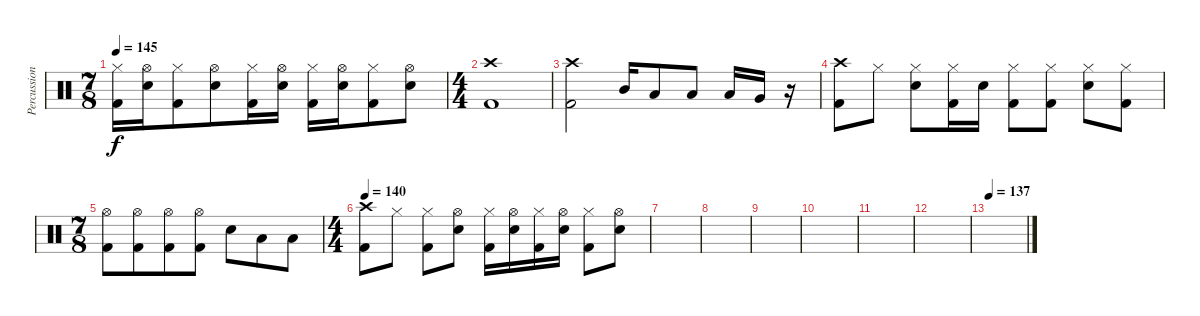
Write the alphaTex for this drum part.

\track ("Percussioni" "Percussion") {instrument percussion}
\staff {score}
\articulation defaults
\ts (7 8)
\tempo 145
\clef neutral
\ks c
("Hi-Hat (closed)" "Kick (hit) 2").16{dy f} ("Hi-Hat (open)" "Snare (hit) 2").16 ("Hi-Hat (closed)" "Kick (hit) 2").8 ("Hi-Hat (open)" "Snare (hit) 2").8 ("Hi-Hat (closed)" "Kick (hit) 2").16 ("Hi-Hat (open)" "Snare (hit) 2").16 ("Hi-Hat (closed)" "Kick (hit) 2").16 ("Hi-Hat (open)" "Snare (hit) 2").16 ("Hi-Hat (closed)" "Kick (hit) 2").8 ("Hi-Hat (open)" "Snare (hit) 2").8 |
\ts (4 4)
("Crash high (hit)" "Kick (hit) 2").1 |
("Crash high (hit)" "Kick (hit) 2").2 "Mid Tom (hit)".16 "Low Tom (hit)".8 "Low Tom (hit)".8 "Low Tom (hit)".16 "Very Low Tom (hit)".16 r.16 |
("Crash high (hit)" "Kick (hit) 2").8 "Hi-Hat (closed)".8 ("Hi-Hat (closed)" "Snare (hit) 2").8 ("Hi-Hat (closed)" "Kick (hit) 2").16 "Snare (hit) 2".16 ("Hi-Hat (closed)" "Kick (hit) 2").8 ("Hi-Hat (closed)" "Kick (hit) 2").8 ("Hi-Hat (closed)" "Snare (hit) 2").8 ("Hi-Hat (closed)" "Kick (hit) 2").8 |
\ts (7 8)
("Hi-Hat (open)" "Kick (hit) 2").8 ("Hi-Hat (open)" "Kick (hit) 2").8 ("Hi-Hat (open)" "Kick (hit) 2").8 ("Hi-Hat (open)" "Kick (hit) 2").8 "Snare (hit) 2".8 "Low Tom (hit)".8 "Low Tom (hit)".8 |
\ts (4 4)
\tempo 140
("Crash high (hit)" "Kick (hit) 2").8 "Hi-Hat (closed)".8 ("Hi-Hat (closed)" "Kick (hit) 2").8 ("Hi-Hat (open)" "Snare (hit) 2").8 ("Hi-Hat (closed)" "Kick (hit) 2").16 ("Hi-Hat (open)" "Snare (hit) 2").16 ("Hi-Hat (closed)" "Kick (hit) 2").16 ("Hi-Hat (open)" "Snare (hit) 2").16 ("Hi-Hat (closed)" "Kick (hit) 2").8 ("Hi-Hat (open)" "Snare (hit) 2").8 |
|
|
|
|
|
|
\tempo 137
